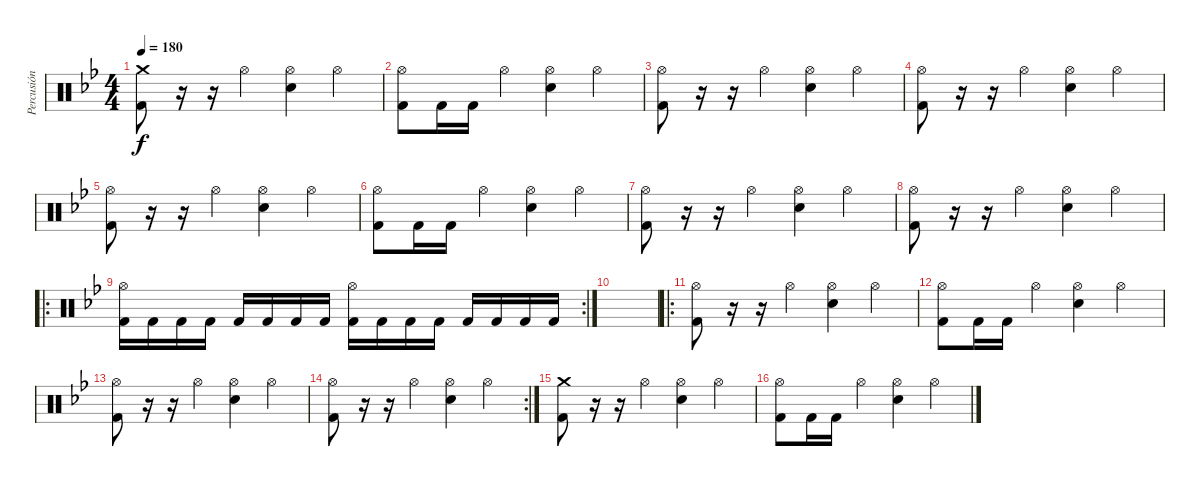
\track ("Percusión" "Percusión") {instrument percussion}
\staff {score}
\articulation defaults
\ts (4 4)
\tempo 180
\clef neutral
\ks bb
("Crash medium (hit)" "Kick (hit) 2").8{dy f} r.16 r.16 "Hi-Hat (open)".4 ("Hi-Hat (open)" "Electric Snare (hit)").4 "Hi-Hat (open)".4 |
("Hi-Hat (open)" "Kick (hit) 2").8 "Kick (hit) 2".16 "Kick (hit) 2".16 "Hi-Hat (open)".4 ("Hi-Hat (open)" "Electric Snare (hit)").4 "Hi-Hat (open)".4 |
("Hi-Hat (open)" "Kick (hit) 2").8 r.16 r.16 "Hi-Hat (open)".4 ("Hi-Hat (open)" "Electric Snare (hit)").4 "Hi-Hat (open)".4 |
("Hi-Hat (open)" "Kick (hit) 2").8 r.16 r.16 "Hi-Hat (open)".4 ("Hi-Hat (open)" "Electric Snare (hit)").4 "Hi-Hat (open)".4 |
("Hi-Hat (open)" "Kick (hit) 2").8 r.16 r.16 "Hi-Hat (open)".4 ("Hi-Hat (open)" "Electric Snare (hit)").4 "Hi-Hat (open)".4 |
("Hi-Hat (open)" "Kick (hit) 2").8 "Kick (hit) 2".16 "Kick (hit) 2".16 "Hi-Hat (open)".4 ("Hi-Hat (open)" "Electric Snare (hit)").4 "Hi-Hat (open)".4 |
("Hi-Hat (open)" "Kick (hit) 2").8 r.16 r.16 "Hi-Hat (open)".4 ("Hi-Hat (open)" "Electric Snare (hit)").4 "Hi-Hat (open)".4 |
("Hi-Hat (open)" "Kick (hit) 2").8 r.16 r.16 "Hi-Hat (open)".4 ("Hi-Hat (open)" "Electric Snare (hit)").4 "Hi-Hat (open)".4 |
\ro
\rc 2
("Hi-Hat (open)" "Kick (hit) 2").16 "Kick (hit) 2".16 "Kick (hit) 2".16 "Kick (hit) 2".16 "Kick (hit) 2".16 "Kick (hit) 2".16 "Kick (hit) 2".16 "Kick (hit) 2".16 ("Hi-Hat (open)" "Kick (hit) 2").16 "Kick (hit) 2".16 "Kick (hit) 2".16 "Kick (hit) 2".16 "Kick (hit) 2".16 "Kick (hit) 2".16 "Kick (hit) 2".16 "Kick (hit) 2".16 |
|
\ro
("Hi-Hat (open)" "Kick (hit) 2").8 r.16 r.16 "Hi-Hat (open)".4 ("Hi-Hat (open)" "Electric Snare (hit)").4 "Hi-Hat (open)".4 |
("Hi-Hat (open)" "Kick (hit) 2").8 "Kick (hit) 2".16 "Kick (hit) 2".16 "Hi-Hat (open)".4 ("Hi-Hat (open)" "Electric Snare (hit)").4 "Hi-Hat (open)".4 |
("Hi-Hat (open)" "Kick (hit) 2").8 r.16 r.16 "Hi-Hat (open)".4 ("Hi-Hat (open)" "Electric Snare (hit)").4 "Hi-Hat (open)".4 |
\rc 2
("Hi-Hat (open)" "Kick (hit) 2").8 r.16 r.16 "Hi-Hat (open)".4 ("Hi-Hat (open)" "Electric Snare (hit)").4 "Hi-Hat (open)".4 |
("Crash medium (hit)" "Kick (hit) 2").8 r.16 r.16 "Hi-Hat (open)".4 ("Hi-Hat (open)" "Electric Snare (hit)").4 "Hi-Hat (open)".4 |
("Hi-Hat (open)" "Kick (hit) 2").8 "Kick (hit) 2".16 "Kick (hit) 2".16 "Hi-Hat (open)".4 ("Hi-Hat (open)" "Electric Snare (hit)").4 "Hi-Hat (open)".4
